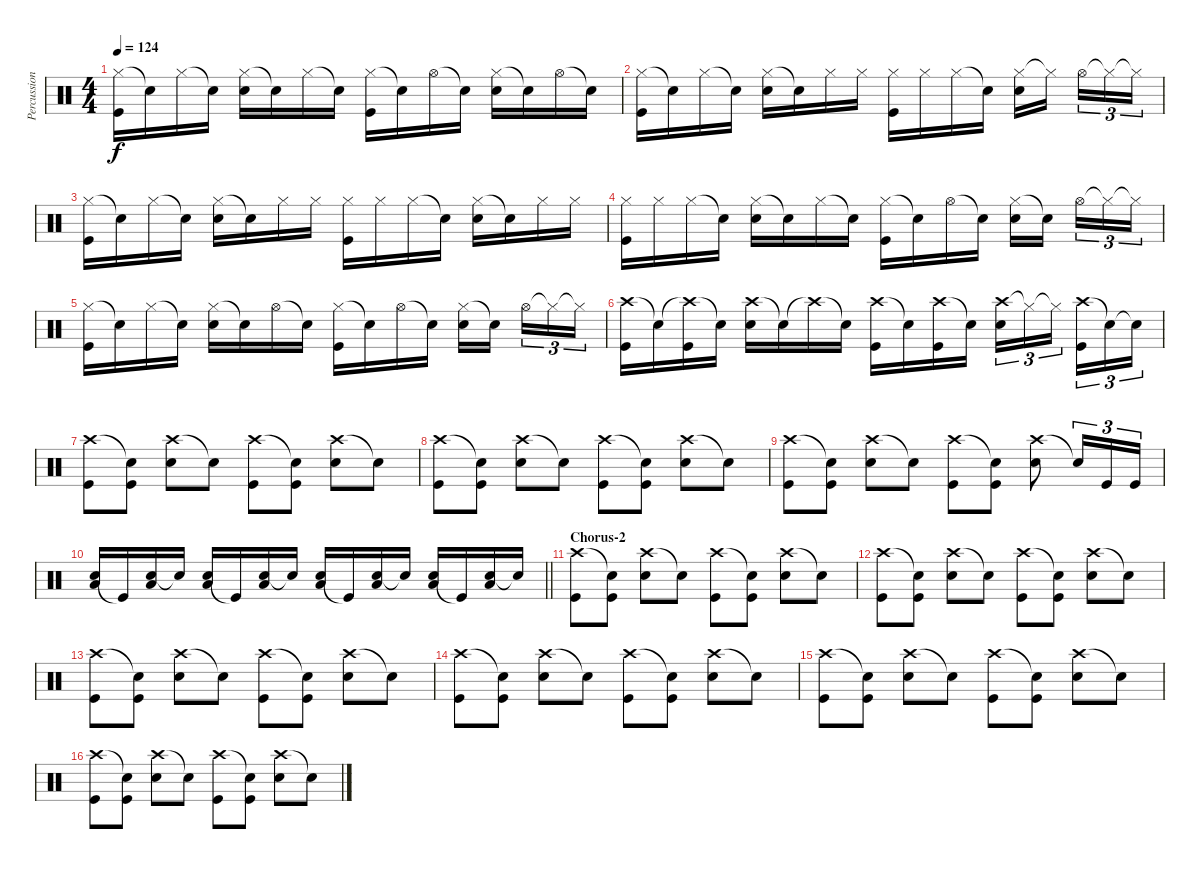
\track ("Percussion" "Percussion") {instrument percussion}
\staff {score}
\articulation defaults
\ts (4 4)
\tempo 124
\clef neutral
\ks c
("Hi-Hat (closed)" "Kick (hit)").16{dy f} "Snare (hit)"{t}.16 "Hi-Hat (closed)".16 "Snare (hit)"{t}.16 ("Hi-Hat (closed)" "Electric Snare (hit)").16 "Snare (hit)"{t}.16 "Hi-Hat (closed)".16 "Snare (hit)"{t}.16 ("Hi-Hat (closed)" "Kick (hit)").16 "Snare (hit)"{t}.16 "Hi-Hat (open)".16 "Snare (hit)"{t}.16 ("Hi-Hat (closed)" "Electric Snare (hit)").16 "Snare (hit)"{t}.16 "Hi-Hat (open)".16 "Snare (hit)"{t}.16 |
("Hi-Hat (closed)" "Kick (hit)").16 "Snare (hit)"{t}.16 "Hi-Hat (closed)".16 "Snare (hit)"{t}.16 ("Hi-Hat (closed)" "Electric Snare (hit)").16 "Snare (hit)"{t}.16 "Hi-Hat (closed)".16 "Hi-Hat (closed)".16 ("Hi-Hat (closed)" "Kick (hit)").16 "Hi-Hat (closed)".16 "Hi-Hat (closed)".16 "Snare (hit)"{t}.16 ("Hi-Hat (closed)" "Electric Snare (hit)").16 "Hi-Hat (closed)"{t}.16 "Hi-Hat (open)".16{tu (3 2)} "Hi-Hat (closed)"{t}.16{tu (3 2)} "Hi-Hat (closed)"{t}.16{tu (3 2)} |
("Hi-Hat (closed)" "Kick (hit)").16 "Snare (hit)"{t}.16 "Hi-Hat (closed)".16 "Snare (hit)"{t}.16 ("Hi-Hat (closed)" "Electric Snare (hit)").16 "Snare (hit)"{t}.16 "Hi-Hat (closed)".16 "Hi-Hat (closed)".16 ("Hi-Hat (closed)" "Kick (hit)").16 "Hi-Hat (closed)".16 "Hi-Hat (closed)".16 "Snare (hit)"{t}.16 ("Hi-Hat (closed)" "Electric Snare (hit)").16 "Snare (hit)"{t}.16 "Hi-Hat (closed)".16 "Hi-Hat (closed)".16 |
("Hi-Hat (closed)" "Kick (hit)").16 "Hi-Hat (closed)".16 "Hi-Hat (closed)".16 "Snare (hit)"{t}.16 ("Hi-Hat (closed)" "Electric Snare (hit)").16 "Snare (hit)"{t}.16 "Hi-Hat (closed)".16 "Snare (hit)"{t}.16 ("Hi-Hat (closed)" "Kick (hit)").16 "Snare (hit)"{t}.16 "Hi-Hat (open)".16 "Snare (hit)"{t}.16 ("Hi-Hat (closed)" "Electric Snare (hit)").16 "Snare (hit)"{t}.16 "Hi-Hat (open)".16{tu (3 2)} "Hi-Hat (closed)"{t}.16{tu (3 2)} "Hi-Hat (closed)"{t}.16{tu (3 2)} |
("Hi-Hat (closed)" "Kick (hit)").16 "Snare (hit)"{t}.16 "Hi-Hat (closed)".16 "Snare (hit)"{t}.16 ("Hi-Hat (closed)" "Electric Snare (hit)").16 "Snare (hit)"{t}.16 "Hi-Hat (open)".16 "Snare (hit)"{t}.16 ("Hi-Hat (closed)" "Kick (hit)").16 "Snare (hit)"{t}.16 "Hi-Hat (open)".16 "Snare (hit)"{t}.16 ("Hi-Hat (closed)" "Electric Snare (hit)").16 "Snare (hit)"{t}.16 "Hi-Hat (open)".16{tu (3 2)} "Hi-Hat (closed)"{t}.16{tu (3 2)} "Hi-Hat (closed)"{t}.16{tu (3 2)} |
("Crash high (hit)" "Kick (hit)").16 "Snare (hit)"{t}.16 ("Crash high (hit)"{t} "Kick (hit)").16 "Snare (hit)"{t}.16 ("Crash high (hit)" "Electric Snare (hit)").16 "Snare (hit)"{t}.16 "Crash high (hit)"{t}.16 "Snare (hit)"{t}.16 ("Crash high (hit)" "Kick (hit)").16 "Snare (hit)"{t}.16 ("Crash high (hit)" "Kick (hit)").16 "Snare (hit)"{t}.16 ("Crash high (hit)" "Electric Snare (hit)").16{tu (3 2)} "Hi-Hat (closed)"{t}.16{tu (3 2)} "Hi-Hat (closed)"{t}.16{tu (3 2)} ("Crash high (hit)" "Kick (hit)").16{tu (3 2)} "Snare (hit)"{t}.16{tu (3 2)} "Snare (hit)"{t}.16{tu (3 2)} |
("Crash high (hit)" "Kick (hit)").8 ("Snare (hit)"{t} "Kick (hit)").8 ("Crash high (hit)" "Electric Snare (hit)").8 "Snare (hit)"{t}.8 ("Crash high (hit)" "Kick (hit)").8 ("Snare (hit)"{t} "Kick (hit)").8 ("Crash high (hit)" "Electric Snare (hit)").8 "Snare (hit)"{t}.8 |
("Crash high (hit)" "Kick (hit)").8 ("Snare (hit)"{t} "Kick (hit)").8 ("Crash high (hit)" "Electric Snare (hit)").8 "Snare (hit)"{t}.8 ("Crash high (hit)" "Kick (hit)").8 ("Snare (hit)"{t} "Kick (hit)").8 ("Crash high (hit)" "Electric Snare (hit)").8 "Snare (hit)"{t}.8 |
("Crash high (hit)" "Kick (hit)").8 ("Snare (hit)"{t} "Kick (hit)").8 ("Crash high (hit)" "Electric Snare (hit)").8 "Snare (hit)"{t}.8 ("Crash high (hit)" "Kick (hit)").8 ("Snare (hit)"{t} "Kick (hit)").8 ("Crash high (hit)" "Electric Snare (hit)").8 "Snare (hit)"{t}.16{tu (3 2)} "Kick (hit)".16{tu (3 2)} "Kick (hit)".16{tu (3 2)} |
\barLineRight lightlight
("Electric Snare (hit)" "Low Floor Tom (hit)").16 "Kick (hit)"{t}.16 ("Electric Snare (hit)" "Low Floor Tom (hit)").16 "Snare (hit)"{t}.16 ("Electric Snare (hit)" "Low Floor Tom (hit)").16 "Kick (hit)"{t}.16 ("Electric Snare (hit)" "Low Floor Tom (hit)").16 "Snare (hit)"{t}.16 ("Electric Snare (hit)" "Low Floor Tom (hit)").16 "Kick (hit)"{t}.16 ("Electric Snare (hit)" "Low Floor Tom (hit)").16 "Snare (hit)"{t}.16 ("Electric Snare (hit)" "Low Floor Tom (hit)").16 "Kick (hit)"{t}.16 ("Electric Snare (hit)" "Low Floor Tom (hit)").16 "Snare (hit)"{t}.16 |
\section ("" "Chorus-2")
("Crash high (hit)" "Kick (hit)").8 ("Snare (hit)"{t} "Kick (hit)").8 ("Crash high (hit)" "Electric Snare (hit)").8 "Snare (hit)"{t}.8 ("Crash high (hit)" "Kick (hit)").8 ("Snare (hit)"{t} "Kick (hit)").8 ("Crash high (hit)" "Electric Snare (hit)").8 "Snare (hit)"{t}.8 |
("Crash high (hit)" "Kick (hit)").8 ("Snare (hit)"{t} "Kick (hit)").8 ("Crash high (hit)" "Electric Snare (hit)").8 "Snare (hit)"{t}.8 ("Crash high (hit)" "Kick (hit)").8 ("Snare (hit)"{t} "Kick (hit)").8 ("Crash high (hit)" "Electric Snare (hit)").8 "Snare (hit)"{t}.8 |
("Crash high (hit)" "Kick (hit)").8 ("Snare (hit)"{t} "Kick (hit)").8 ("Crash high (hit)" "Electric Snare (hit)").8 "Snare (hit)"{t}.8 ("Crash high (hit)" "Kick (hit)").8 ("Snare (hit)"{t} "Kick (hit)").8 ("Crash high (hit)" "Electric Snare (hit)").8 "Snare (hit)"{t}.8 |
("Crash high (hit)" "Kick (hit)").8 ("Snare (hit)"{t} "Kick (hit)").8 ("Crash high (hit)" "Electric Snare (hit)").8 "Snare (hit)"{t}.8 ("Crash high (hit)" "Kick (hit)").8 ("Snare (hit)"{t} "Kick (hit)").8 ("Crash high (hit)" "Electric Snare (hit)").8 "Snare (hit)"{t}.8 |
("Crash high (hit)" "Kick (hit)").8 ("Snare (hit)"{t} "Kick (hit)").8 ("Crash high (hit)" "Electric Snare (hit)").8 "Snare (hit)"{t}.8 ("Crash high (hit)" "Kick (hit)").8 ("Snare (hit)"{t} "Kick (hit)").8 ("Crash high (hit)" "Electric Snare (hit)").8 "Snare (hit)"{t}.8 |
("Crash high (hit)" "Kick (hit)").8 ("Snare (hit)"{t} "Kick (hit)").8 ("Crash high (hit)" "Electric Snare (hit)").8 "Snare (hit)"{t}.8 ("Crash high (hit)" "Kick (hit)").8 ("Snare (hit)"{t} "Kick (hit)").8 ("Crash high (hit)" "Electric Snare (hit)").8 "Snare (hit)"{t}.8
